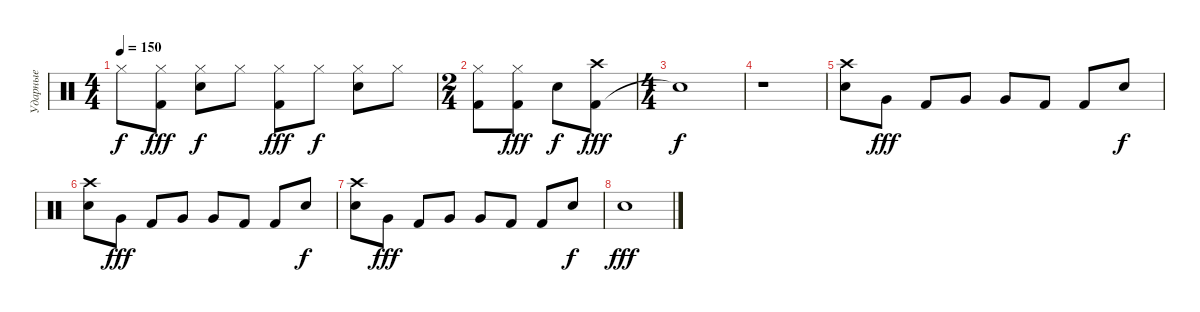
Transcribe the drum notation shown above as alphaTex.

\track ("Ударные" "Ударные") {instrument percussion}
\staff
\articulation defaults
\ts (4 4)
\tempo 150
\clef neutral
\ks c "Hi-Hat (closed)"{t}.8{dy f}
("Kick (hit) 2" "Hi-Hat (closed)").8{dy fff} ("Snare (hit) 2" "Hi-Hat (closed)").8{dy f} "Hi-Hat (closed)".8 ("Kick (hit) 2" "Hi-Hat (closed)").8{dy fff} "Hi-Hat (closed)".8{dy f} ("Snare (hit) 2" "Hi-Hat (closed)").8 "Hi-Hat (closed)".8 |
\ts (2 4)
("Kick (hit) 2" "Hi-Hat (closed)").8 ("Kick (hit) 2" "Hi-Hat (closed)").8{dy fff} "Snare (hit) 2".8{dy f} ("Kick (hit) 2" "Crash high (hit)").8{dy fff} |
\ts (4 4)
"Snare (hit)"{t}.1{dy f} |
r.1 |
("Snare (hit) 2" "Crash high (hit)").8 "Very Low Tom (hit)".8{dy fff} "Kick (hit) 2".8 "Very Low Tom (hit)".8 "Very Low Tom (hit)".8 "Kick (hit) 2".8 "Kick (hit) 2".8 "Snare (hit) 2".8{dy f} |
("Snare (hit) 2" "Crash high (hit)").8 "Very Low Tom (hit)".8{dy fff} "Kick (hit) 2".8 "Very Low Tom (hit)".8 "Very Low Tom (hit)".8 "Kick (hit) 2".8 "Kick (hit) 2".8 "Snare (hit) 2".8{dy f} |
("Snare (hit) 2" "Crash high (hit)").8 "Very Low Tom (hit)".8{dy fff} "Kick (hit) 2".8 "Very Low Tom (hit)".8 "Very Low Tom (hit)".8 "Kick (hit) 2".8 "Kick (hit) 2".8 "Snare (hit) 2".8{dy f} |
"Snare (hit) 2".1{dy fff}
